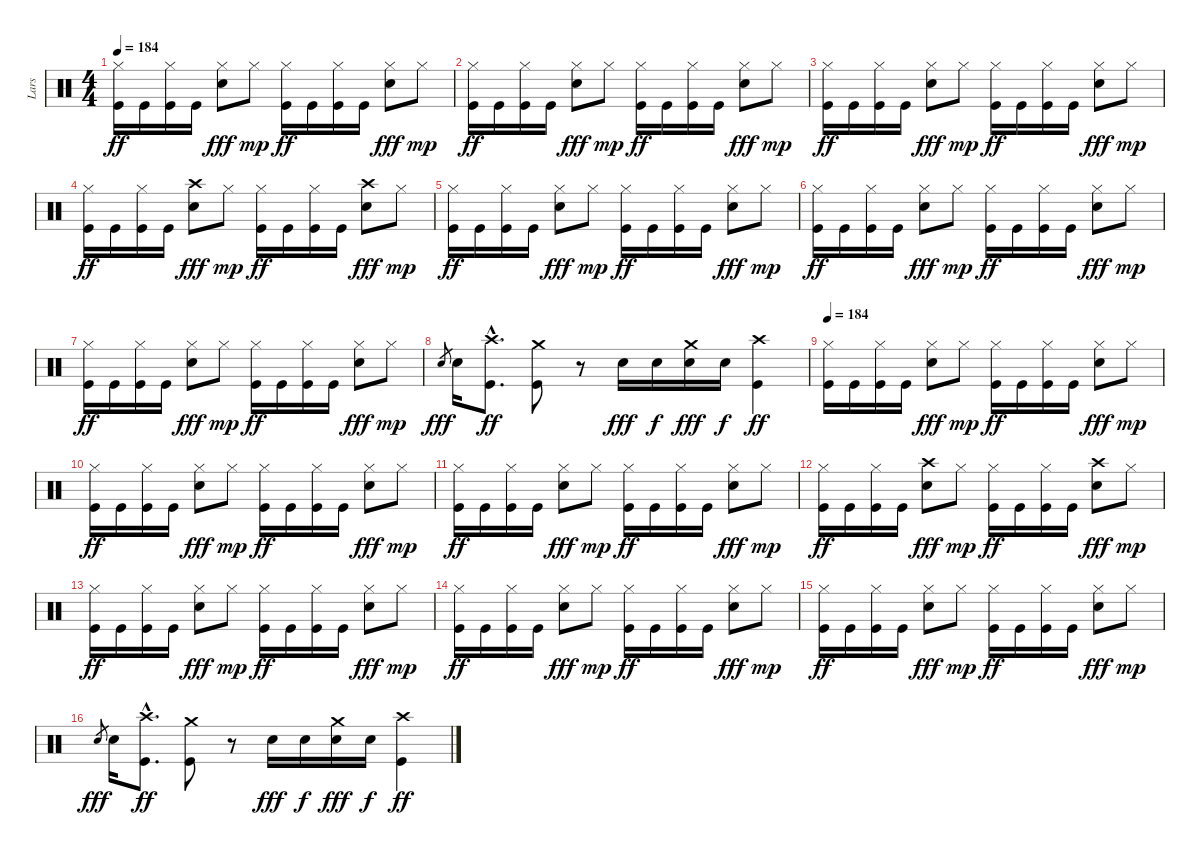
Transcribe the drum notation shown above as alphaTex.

\track ("Lars" "Lars") {instrument percussion}
\staff {score}
\articulation defaults
\ts (4 4)
\tempo 184
\clef neutral
\ks c
("Hi-Hat (closed)" "Kick (hit)").16{dy ff} "Kick (hit)".16 ("Hi-Hat (closed)" "Kick (hit)").16 "Kick (hit)".16 ("Hi-Hat (closed)" "Electric Snare (hit)").8{dy fff} "Hi-Hat (closed)".8{dy mp} ("Hi-Hat (closed)" "Kick (hit)").16{dy ff} "Kick (hit)".16 ("Hi-Hat (closed)" "Kick (hit)").16 "Kick (hit)".16 ("Hi-Hat (closed)" "Electric Snare (hit)").8{dy fff} "Hi-Hat (closed)".8{dy mp} |
("Hi-Hat (closed)" "Kick (hit)").16{dy ff} "Kick (hit)".16 ("Hi-Hat (closed)" "Kick (hit)").16 "Kick (hit)".16 ("Hi-Hat (closed)" "Electric Snare (hit)").8{dy fff} "Hi-Hat (closed)".8{dy mp} ("Hi-Hat (closed)" "Kick (hit)").16{dy ff} "Kick (hit)".16 ("Hi-Hat (closed)" "Kick (hit)").16 "Kick (hit)".16 ("Hi-Hat (closed)" "Electric Snare (hit)").8{dy fff} "Hi-Hat (closed)".8{dy mp} |
("Hi-Hat (closed)" "Kick (hit)").16{dy ff} "Kick (hit)".16 ("Hi-Hat (closed)" "Kick (hit)").16 "Kick (hit)".16 ("Hi-Hat (closed)" "Electric Snare (hit)").8{dy fff} "Hi-Hat (closed)".8{dy mp} ("Hi-Hat (closed)" "Kick (hit)").16{dy ff} "Kick (hit)".16 ("Hi-Hat (closed)" "Kick (hit)").16 "Kick (hit)".16 ("Hi-Hat (closed)" "Electric Snare (hit)").8{dy fff} "Hi-Hat (closed)".8{dy mp} |
("Hi-Hat (closed)" "Kick (hit)").16{dy ff} "Kick (hit)".16 ("Hi-Hat (closed)" "Kick (hit)").16 "Kick (hit)".16 ("Crash high (hit)" "Electric Snare (hit)").8{dy fff} "Hi-Hat (closed)".8{dy mp} ("Hi-Hat (closed)" "Kick (hit)").16{dy ff} "Kick (hit)".16 ("Hi-Hat (closed)" "Kick (hit)").16 "Kick (hit)".16 ("Crash high (hit)" "Electric Snare (hit)").8{dy fff} "Hi-Hat (closed)".8{dy mp} |
("Hi-Hat (closed)" "Kick (hit)").16{dy ff} "Kick (hit)".16 ("Hi-Hat (closed)" "Kick (hit)").16 "Kick (hit)".16 ("Hi-Hat (closed)" "Electric Snare (hit)").8{dy fff} "Hi-Hat (closed)".8{dy mp} ("Hi-Hat (closed)" "Kick (hit)").16{dy ff} "Kick (hit)".16 ("Hi-Hat (closed)" "Kick (hit)").16 "Kick (hit)".16 ("Hi-Hat (closed)" "Electric Snare (hit)").8{dy fff} "Hi-Hat (closed)".8{dy mp} |
("Hi-Hat (closed)" "Kick (hit)").16{dy ff} "Kick (hit)".16 ("Hi-Hat (closed)" "Kick (hit)").16 "Kick (hit)".16 ("Hi-Hat (closed)" "Electric Snare (hit)").8{dy fff} "Hi-Hat (closed)".8{dy mp} ("Hi-Hat (closed)" "Kick (hit)").16{dy ff} "Kick (hit)".16 ("Hi-Hat (closed)" "Kick (hit)").16 "Kick (hit)".16 ("Hi-Hat (closed)" "Electric Snare (hit)").8{dy fff} "Hi-Hat (closed)".8{dy mp} |
("Hi-Hat (closed)" "Kick (hit)").16{dy ff} "Kick (hit)".16 ("Hi-Hat (closed)" "Kick (hit)").16 "Kick (hit)".16 ("Hi-Hat (closed)" "Electric Snare (hit)").8{dy fff} "Hi-Hat (closed)".8{dy mp} ("Hi-Hat (closed)" "Kick (hit)").16{dy ff} "Kick (hit)".16 ("Hi-Hat (closed)" "Kick (hit)").16 "Kick (hit)".16 ("Hi-Hat (closed)" "Electric Snare (hit)").8{dy fff} "Hi-Hat (closed)".8{dy mp} |
"Electric Snare (hit)".8{gr dy fff} "Electric Snare (hit)".16 ("Crash high (hit)"{hac} "Kick (hit)"{hac}).8{d dy ff} ("Crash medium (hit)" "Kick (hit)").8 r.8 "Electric Snare (hit)".16{dy fff} "Electric Snare (hit)".16{dy f} ("Crash medium (hit)" "Electric Snare (hit)").16{dy fff} "Electric Snare (hit)".16{dy f} ("Crash high (hit)" "Kick (hit)").4{dy ff} |
\tempo 184
("Hi-Hat (closed)" "Kick (hit)").16 "Kick (hit)".16 ("Hi-Hat (closed)" "Kick (hit)").16 "Kick (hit)".16 ("Hi-Hat (closed)" "Electric Snare (hit)").8{dy fff} "Hi-Hat (closed)".8{dy mp} ("Hi-Hat (closed)" "Kick (hit)").16{dy ff} "Kick (hit)".16 ("Hi-Hat (closed)" "Kick (hit)").16 "Kick (hit)".16 ("Hi-Hat (closed)" "Electric Snare (hit)").8{dy fff} "Hi-Hat (closed)".8{dy mp} |
("Hi-Hat (closed)" "Kick (hit)").16{dy ff} "Kick (hit)".16 ("Hi-Hat (closed)" "Kick (hit)").16 "Kick (hit)".16 ("Hi-Hat (closed)" "Electric Snare (hit)").8{dy fff} "Hi-Hat (closed)".8{dy mp} ("Hi-Hat (closed)" "Kick (hit)").16{dy ff} "Kick (hit)".16 ("Hi-Hat (closed)" "Kick (hit)").16 "Kick (hit)".16 ("Hi-Hat (closed)" "Electric Snare (hit)").8{dy fff} "Hi-Hat (closed)".8{dy mp} |
("Hi-Hat (closed)" "Kick (hit)").16{dy ff} "Kick (hit)".16 ("Hi-Hat (closed)" "Kick (hit)").16 "Kick (hit)".16 ("Hi-Hat (closed)" "Electric Snare (hit)").8{dy fff} "Hi-Hat (closed)".8{dy mp} ("Hi-Hat (closed)" "Kick (hit)").16{dy ff} "Kick (hit)".16 ("Hi-Hat (closed)" "Kick (hit)").16 "Kick (hit)".16 ("Hi-Hat (closed)" "Electric Snare (hit)").8{dy fff} "Hi-Hat (closed)".8{dy mp} |
("Hi-Hat (closed)" "Kick (hit)").16{dy ff} "Kick (hit)".16 ("Hi-Hat (closed)" "Kick (hit)").16 "Kick (hit)".16 ("Crash high (hit)" "Electric Snare (hit)").8{dy fff} "Hi-Hat (closed)".8{dy mp} ("Hi-Hat (closed)" "Kick (hit)").16{dy ff} "Kick (hit)".16 ("Hi-Hat (closed)" "Kick (hit)").16 "Kick (hit)".16 ("Crash high (hit)" "Electric Snare (hit)").8{dy fff} "Hi-Hat (closed)".8{dy mp} |
("Hi-Hat (closed)" "Kick (hit)").16{dy ff} "Kick (hit)".16 ("Hi-Hat (closed)" "Kick (hit)").16 "Kick (hit)".16 ("Hi-Hat (closed)" "Electric Snare (hit)").8{dy fff} "Hi-Hat (closed)".8{dy mp} ("Hi-Hat (closed)" "Kick (hit)").16{dy ff} "Kick (hit)".16 ("Hi-Hat (closed)" "Kick (hit)").16 "Kick (hit)".16 ("Hi-Hat (closed)" "Electric Snare (hit)").8{dy fff} "Hi-Hat (closed)".8{dy mp} |
("Hi-Hat (closed)" "Kick (hit)").16{dy ff} "Kick (hit)".16 ("Hi-Hat (closed)" "Kick (hit)").16 "Kick (hit)".16 ("Hi-Hat (closed)" "Electric Snare (hit)").8{dy fff} "Hi-Hat (closed)".8{dy mp} ("Hi-Hat (closed)" "Kick (hit)").16{dy ff} "Kick (hit)".16 ("Hi-Hat (closed)" "Kick (hit)").16 "Kick (hit)".16 ("Hi-Hat (closed)" "Electric Snare (hit)").8{dy fff} "Hi-Hat (closed)".8{dy mp} |
("Hi-Hat (closed)" "Kick (hit)").16{dy ff} "Kick (hit)".16 ("Hi-Hat (closed)" "Kick (hit)").16 "Kick (hit)".16 ("Hi-Hat (closed)" "Electric Snare (hit)").8{dy fff} "Hi-Hat (closed)".8{dy mp} ("Hi-Hat (closed)" "Kick (hit)").16{dy ff} "Kick (hit)".16 ("Hi-Hat (closed)" "Kick (hit)").16 "Kick (hit)".16 ("Hi-Hat (closed)" "Electric Snare (hit)").8{dy fff} "Hi-Hat (closed)".8{dy mp} |
"Electric Snare (hit)".8{gr dy fff} "Electric Snare (hit)".16 ("Crash high (hit)"{hac} "Kick (hit)"{hac}).8{d dy ff} ("Crash medium (hit)" "Kick (hit)").8 r.8 "Electric Snare (hit)".16{dy fff} "Electric Snare (hit)".16{dy f} ("Crash medium (hit)" "Electric Snare (hit)").16{dy fff} "Electric Snare (hit)".16{dy f} ("Crash high (hit)" "Kick (hit)").4{dy ff}
